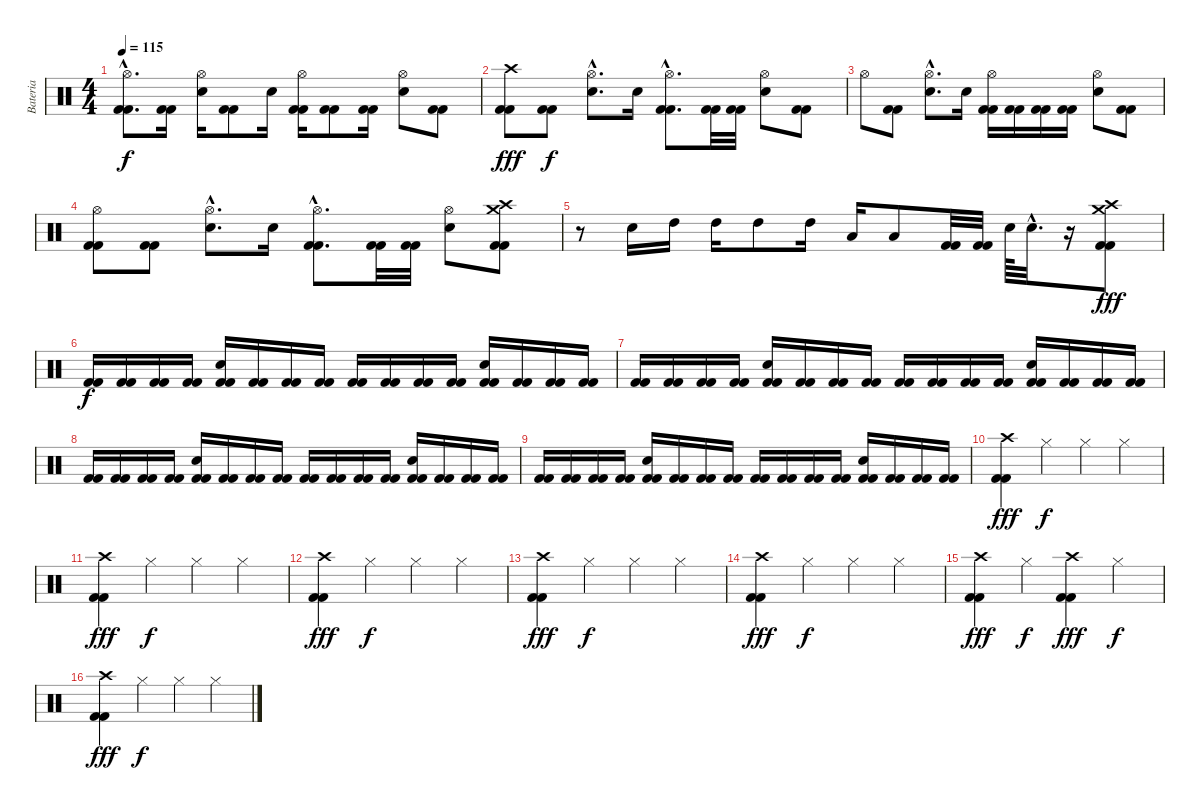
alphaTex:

\track ("Bateria" "Bateria") {instrument percussion}
\staff {score}
\articulation defaults
\ts (4 4)
\tempo 115
\clef neutral
\ks c
("Hi-Hat (open)"{hac} "Kick (hit) 2"{hac} "Kick (hit) 2"{hac}).8{d dy f} ("Kick (hit) 2" "Kick (hit) 2").16 ("Hi-Hat (open)" "Electric Snare (hit)").16 ("Kick (hit) 2" "Kick (hit) 2").8 "Electric Snare (hit)".16 ("Hi-Hat (open)" "Kick (hit) 2" "Kick (hit) 2").16 ("Kick (hit) 2" "Kick (hit) 2").8 ("Kick (hit) 2" "Kick (hit) 2").16 ("Hi-Hat (open)" "Electric Snare (hit)").8 ("Kick (hit) 2" "Kick (hit) 2").8 |
("Crash high (hit)" "Kick (hit) 2" "Kick (hit) 2").8{dy fff} ("Kick (hit) 2" "Kick (hit) 2").8{dy f} ("Hi-Hat (open)"{hac} "Electric Snare (hit)"{hac}).8{d} "Electric Snare (hit)".16 ("Hi-Hat (open)"{hac} "Kick (hit) 2"{hac} "Kick (hit) 2"{hac}).8{d} ("Kick (hit) 2" "Kick (hit) 2").32 ("Kick (hit) 2" "Kick (hit) 2").32 ("Hi-Hat (open)" "Electric Snare (hit)").8 ("Kick (hit) 2" "Kick (hit) 2").8 |
"Hi-Hat (open)".8 ("Kick (hit) 2" "Kick (hit) 2").8 ("Hi-Hat (open)"{hac} "Electric Snare (hit)"{hac}).8{d} "Electric Snare (hit)".16 ("Hi-Hat (open)" "Kick (hit) 2" "Kick (hit) 2").16 ("Kick (hit) 2" "Kick (hit) 2").16 ("Kick (hit) 2" "Kick (hit) 2").16 ("Kick (hit) 2" "Kick (hit) 2").16 ("Hi-Hat (open)" "Electric Snare (hit)").8 ("Kick (hit) 2" "Kick (hit) 2").8 |
("Hi-Hat (open)" "Kick (hit) 2" "Kick (hit) 2").8 ("Kick (hit) 2" "Kick (hit) 2").8 ("Hi-Hat (open)"{hac} "Electric Snare (hit)"{hac}).8{d} "Electric Snare (hit)".16 ("Hi-Hat (open)"{hac} "Kick (hit) 2"{hac} "Kick (hit) 2"{hac}).8{d} ("Kick (hit) 2" "Kick (hit) 2").32 ("Kick (hit) 2" "Kick (hit) 2").32 ("Hi-Hat (open)" "Electric Snare (hit)").8 ("Crash high (hit)" "Crash medium (hit)" "Kick (hit) 2" "Kick (hit) 2").8 |
r.8 "Electric Snare (hit)".16 "High Tom (hit)".16 "High Tom (hit)".16 "High Tom (hit)".8 "High Tom (hit)".16 "Low Tom (hit)".16 "Low Tom (hit)".8 ("Kick (hit) 2" "Kick (hit) 2").32 ("Kick (hit) 2" "Kick (hit) 2").32 "Electric Snare (hit)".64 "Electric Snare (hit)"{hac}.32{d} r.16 ("Crash high (hit)" "Crash medium (hit)" "Kick (hit) 2" "Kick (hit) 2").8{dy fff} |
("Kick (hit) 2" "Kick (hit) 2").16{dy f} ("Kick (hit) 2" "Kick (hit) 2").16 ("Kick (hit) 2" "Kick (hit) 2").16 ("Kick (hit) 2" "Kick (hit) 2").16 ("Electric Snare (hit)" "Kick (hit) 2" "Kick (hit) 2").16 ("Kick (hit) 2" "Kick (hit) 2").16 ("Kick (hit) 2" "Kick (hit) 2").16 ("Kick (hit) 2" "Kick (hit) 2").16 ("Kick (hit) 2" "Kick (hit) 2").16 ("Kick (hit) 2" "Kick (hit) 2").16 ("Kick (hit) 2" "Kick (hit) 2").16 ("Kick (hit) 2" "Kick (hit) 2").16 ("Electric Snare (hit)" "Kick (hit) 2" "Kick (hit) 2").16 ("Kick (hit) 2" "Kick (hit) 2").16 ("Kick (hit) 2" "Kick (hit) 2").16 ("Kick (hit) 2" "Kick (hit) 2").16 |
("Kick (hit) 2" "Kick (hit) 2").16 ("Kick (hit) 2" "Kick (hit) 2").16 ("Kick (hit) 2" "Kick (hit) 2").16 ("Kick (hit) 2" "Kick (hit) 2").16 ("Electric Snare (hit)" "Kick (hit) 2" "Kick (hit) 2").16 ("Kick (hit) 2" "Kick (hit) 2").16 ("Kick (hit) 2" "Kick (hit) 2").16 ("Kick (hit) 2" "Kick (hit) 2").16 ("Kick (hit) 2" "Kick (hit) 2").16 ("Kick (hit) 2" "Kick (hit) 2").16 ("Kick (hit) 2" "Kick (hit) 2").16 ("Kick (hit) 2" "Kick (hit) 2").16 ("Electric Snare (hit)" "Kick (hit) 2" "Kick (hit) 2").16 ("Kick (hit) 2" "Kick (hit) 2").16 ("Kick (hit) 2" "Kick (hit) 2").16 ("Kick (hit) 2" "Kick (hit) 2").16 |
("Kick (hit) 2" "Kick (hit) 2").16 ("Kick (hit) 2" "Kick (hit) 2").16 ("Kick (hit) 2" "Kick (hit) 2").16 ("Kick (hit) 2" "Kick (hit) 2").16 ("Electric Snare (hit)" "Kick (hit) 2" "Kick (hit) 2").16 ("Kick (hit) 2" "Kick (hit) 2").16 ("Kick (hit) 2" "Kick (hit) 2").16 ("Kick (hit) 2" "Kick (hit) 2").16 ("Kick (hit) 2" "Kick (hit) 2").16 ("Kick (hit) 2" "Kick (hit) 2").16 ("Kick (hit) 2" "Kick (hit) 2").16 ("Kick (hit) 2" "Kick (hit) 2").16 ("Electric Snare (hit)" "Kick (hit) 2" "Kick (hit) 2").16 ("Kick (hit) 2" "Kick (hit) 2").16 ("Kick (hit) 2" "Kick (hit) 2").16 ("Kick (hit) 2" "Kick (hit) 2").16 |
("Kick (hit) 2" "Kick (hit) 2").16 ("Kick (hit) 2" "Kick (hit) 2").16 ("Kick (hit) 2" "Kick (hit) 2").16 ("Kick (hit) 2" "Kick (hit) 2").16 ("Electric Snare (hit)" "Kick (hit) 2" "Kick (hit) 2").16 ("Kick (hit) 2" "Kick (hit) 2").16 ("Kick (hit) 2" "Kick (hit) 2").16 ("Kick (hit) 2" "Kick (hit) 2").16 ("Kick (hit) 2" "Kick (hit) 2").16 ("Kick (hit) 2" "Kick (hit) 2").16 ("Kick (hit) 2" "Kick (hit) 2").16 ("Kick (hit) 2" "Kick (hit) 2").16 ("Electric Snare (hit)" "Kick (hit) 2" "Kick (hit) 2").16 ("Kick (hit) 2" "Kick (hit) 2").16 ("Kick (hit) 2" "Kick (hit) 2").16 ("Kick (hit) 2" "Kick (hit) 2").16 |
("Crash high (hit)" "Kick (hit) 2" "Kick (hit) 2").4{dy fff} "Hi-Hat (closed)".4{dy f} "Hi-Hat (closed)".4 "Hi-Hat (closed)".4 |
("Crash high (hit)" "Kick (hit) 2" "Kick (hit) 2").4{dy fff} "Hi-Hat (closed)".4{dy f} "Hi-Hat (closed)".4 "Hi-Hat (closed)".4 |
("Crash high (hit)" "Kick (hit) 2" "Kick (hit) 2").4{dy fff} "Hi-Hat (closed)".4{dy f} "Hi-Hat (closed)".4 "Hi-Hat (closed)".4 |
("Crash high (hit)" "Kick (hit) 2" "Kick (hit) 2").4{dy fff} "Hi-Hat (closed)".4{dy f} "Hi-Hat (closed)".4 "Hi-Hat (closed)".4 |
("Crash high (hit)" "Kick (hit) 2" "Kick (hit) 2").4{dy fff} "Hi-Hat (closed)".4{dy f} "Hi-Hat (closed)".4 "Hi-Hat (closed)".4 |
("Crash high (hit)" "Kick (hit) 2" "Kick (hit) 2").4{dy fff} "Hi-Hat (closed)".4{dy f} ("Crash high (hit)" "Kick (hit) 2" "Kick (hit) 2").4{dy fff} "Hi-Hat (closed)".4{dy f} |
("Crash high (hit)" "Kick (hit) 2" "Kick (hit) 2").4{dy fff} "Hi-Hat (closed)".4{dy f} "Hi-Hat (closed)".4 "Hi-Hat (closed)".4
